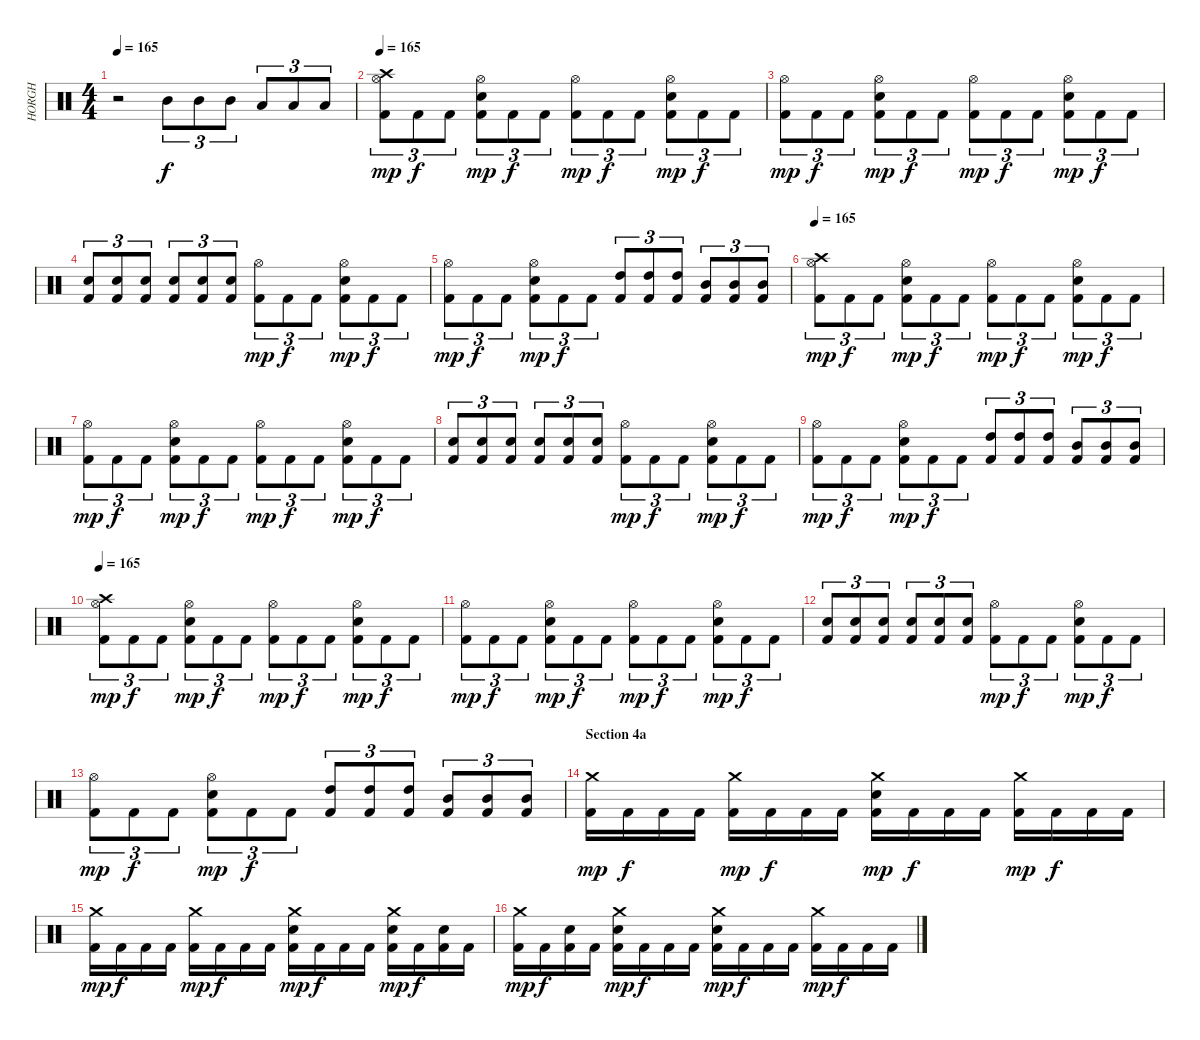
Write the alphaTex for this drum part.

\track ("HORGH" "HORGH") {instrument percussion}
\staff {score}
\articulation defaults
\ts (4 4)
\tempo 165
\clef neutral
\ks c
r.2{dy mp} "Mid Tom (hit)".8{tu (3 2) dy f} "Mid Tom (hit)".8{tu (3 2)} "Mid Tom (hit)".8{tu (3 2)} "Low Tom (hit)".8{tu (3 2)} "Low Tom (hit)".8{tu (3 2)} "Low Tom (hit)".8{tu (3 2)} |
\tempo 165
("Hi-Hat (open)" "Crash high (hit)" "Kick (hit) 2").8{tu (3 2) dy mp} "Kick (hit) 2".8{tu (3 2) dy f} "Kick (hit) 2".8{tu (3 2)} ("Hi-Hat (open)" "Electric Snare (hit)" "Kick (hit) 2").8{tu (3 2) dy mp} "Kick (hit) 2".8{tu (3 2) dy f} "Kick (hit) 2".8{tu (3 2)} ("Hi-Hat (open)" "Kick (hit) 2").8{tu (3 2) dy mp} "Kick (hit) 2".8{tu (3 2) dy f} "Kick (hit) 2".8{tu (3 2)} ("Hi-Hat (open)" "Electric Snare (hit)" "Kick (hit) 2").8{tu (3 2) dy mp} "Kick (hit) 2".8{tu (3 2) dy f} "Kick (hit) 2".8{tu (3 2)} |
("Hi-Hat (open)" "Kick (hit) 2").8{tu (3 2) dy mp} "Kick (hit) 2".8{tu (3 2) dy f} "Kick (hit) 2".8{tu (3 2)} ("Hi-Hat (open)" "Electric Snare (hit)" "Kick (hit) 2").8{tu (3 2) dy mp} "Kick (hit) 2".8{tu (3 2) dy f} "Kick (hit) 2".8{tu (3 2)} ("Hi-Hat (open)" "Kick (hit) 2").8{tu (3 2) dy mp} "Kick (hit) 2".8{tu (3 2) dy f} "Kick (hit) 2".8{tu (3 2)} ("Hi-Hat (open)" "Electric Snare (hit)" "Kick (hit) 2").8{tu (3 2) dy mp} "Kick (hit) 2".8{tu (3 2) dy f} "Kick (hit) 2".8{tu (3 2)} |
("Electric Snare (hit)" "Kick (hit) 2").8{tu (3 2)} ("Electric Snare (hit)" "Kick (hit) 2").8{tu (3 2)} ("Electric Snare (hit)" "Kick (hit) 2").8{tu (3 2)} ("Electric Snare (hit)" "Kick (hit) 2").8{tu (3 2)} ("Electric Snare (hit)" "Kick (hit) 2").8{tu (3 2)} ("Electric Snare (hit)" "Kick (hit) 2").8{tu (3 2)} ("Hi-Hat (open)" "Kick (hit) 2").8{tu (3 2) dy mp} "Kick (hit) 2".8{tu (3 2) dy f} "Kick (hit) 2".8{tu (3 2)} ("Hi-Hat (open)" "Electric Snare (hit)" "Kick (hit) 2").8{tu (3 2) dy mp} "Kick (hit) 2".8{tu (3 2) dy f} "Kick (hit) 2".8{tu (3 2)} |
("Hi-Hat (open)" "Kick (hit) 2").8{tu (3 2) dy mp} "Kick (hit) 2".8{tu (3 2) dy f} "Kick (hit) 2".8{tu (3 2)} ("Hi-Hat (open)" "Electric Snare (hit)" "Kick (hit) 2").8{tu (3 2) dy mp} "Kick (hit) 2".8{tu (3 2) dy f} "Kick (hit) 2".8{tu (3 2)} ("High Tom (hit)" "Kick (hit) 2").8{tu (3 2)} ("High Tom (hit)" "Kick (hit) 2").8{tu (3 2)} ("High Tom (hit)" "Kick (hit) 2").8{tu (3 2)} ("Mid Tom (hit)" "Kick (hit) 2").8{tu (3 2)} ("Mid Tom (hit)" "Kick (hit) 2").8{tu (3 2)} ("Mid Tom (hit)" "Kick (hit) 2").8{tu (3 2)} |
\tempo 165
("Hi-Hat (open)" "Crash high (hit)" "Kick (hit) 2").8{tu (3 2) dy mp} "Kick (hit) 2".8{tu (3 2) dy f} "Kick (hit) 2".8{tu (3 2)} ("Hi-Hat (open)" "Electric Snare (hit)" "Kick (hit) 2").8{tu (3 2) dy mp} "Kick (hit) 2".8{tu (3 2) dy f} "Kick (hit) 2".8{tu (3 2)} ("Hi-Hat (open)" "Kick (hit) 2").8{tu (3 2) dy mp} "Kick (hit) 2".8{tu (3 2) dy f} "Kick (hit) 2".8{tu (3 2)} ("Hi-Hat (open)" "Electric Snare (hit)" "Kick (hit) 2").8{tu (3 2) dy mp} "Kick (hit) 2".8{tu (3 2) dy f} "Kick (hit) 2".8{tu (3 2)} |
("Hi-Hat (open)" "Kick (hit) 2").8{tu (3 2) dy mp} "Kick (hit) 2".8{tu (3 2) dy f} "Kick (hit) 2".8{tu (3 2)} ("Hi-Hat (open)" "Electric Snare (hit)" "Kick (hit) 2").8{tu (3 2) dy mp} "Kick (hit) 2".8{tu (3 2) dy f} "Kick (hit) 2".8{tu (3 2)} ("Hi-Hat (open)" "Kick (hit) 2").8{tu (3 2) dy mp} "Kick (hit) 2".8{tu (3 2) dy f} "Kick (hit) 2".8{tu (3 2)} ("Hi-Hat (open)" "Electric Snare (hit)" "Kick (hit) 2").8{tu (3 2) dy mp} "Kick (hit) 2".8{tu (3 2) dy f} "Kick (hit) 2".8{tu (3 2)} |
("Electric Snare (hit)" "Kick (hit) 2").8{tu (3 2)} ("Electric Snare (hit)" "Kick (hit) 2").8{tu (3 2)} ("Electric Snare (hit)" "Kick (hit) 2").8{tu (3 2)} ("Electric Snare (hit)" "Kick (hit) 2").8{tu (3 2)} ("Electric Snare (hit)" "Kick (hit) 2").8{tu (3 2)} ("Electric Snare (hit)" "Kick (hit) 2").8{tu (3 2)} ("Hi-Hat (open)" "Kick (hit) 2").8{tu (3 2) dy mp} "Kick (hit) 2".8{tu (3 2) dy f} "Kick (hit) 2".8{tu (3 2)} ("Hi-Hat (open)" "Electric Snare (hit)" "Kick (hit) 2").8{tu (3 2) dy mp} "Kick (hit) 2".8{tu (3 2) dy f} "Kick (hit) 2".8{tu (3 2)} |
("Hi-Hat (open)" "Kick (hit) 2").8{tu (3 2) dy mp} "Kick (hit) 2".8{tu (3 2) dy f} "Kick (hit) 2".8{tu (3 2)} ("Hi-Hat (open)" "Electric Snare (hit)" "Kick (hit) 2").8{tu (3 2) dy mp} "Kick (hit) 2".8{tu (3 2) dy f} "Kick (hit) 2".8{tu (3 2)} ("High Tom (hit)" "Kick (hit) 2").8{tu (3 2)} ("High Tom (hit)" "Kick (hit) 2").8{tu (3 2)} ("High Tom (hit)" "Kick (hit) 2").8{tu (3 2)} ("Mid Tom (hit)" "Kick (hit) 2").8{tu (3 2)} ("Mid Tom (hit)" "Kick (hit) 2").8{tu (3 2)} ("Mid Tom (hit)" "Kick (hit) 2").8{tu (3 2)} |
\tempo 165
("Hi-Hat (open)" "Crash high (hit)" "Kick (hit) 2").8{tu (3 2) dy mp} "Kick (hit) 2".8{tu (3 2) dy f} "Kick (hit) 2".8{tu (3 2)} ("Hi-Hat (open)" "Electric Snare (hit)" "Kick (hit) 2").8{tu (3 2) dy mp} "Kick (hit) 2".8{tu (3 2) dy f} "Kick (hit) 2".8{tu (3 2)} ("Hi-Hat (open)" "Kick (hit) 2").8{tu (3 2) dy mp} "Kick (hit) 2".8{tu (3 2) dy f} "Kick (hit) 2".8{tu (3 2)} ("Hi-Hat (open)" "Electric Snare (hit)" "Kick (hit) 2").8{tu (3 2) dy mp} "Kick (hit) 2".8{tu (3 2) dy f} "Kick (hit) 2".8{tu (3 2)} |
("Hi-Hat (open)" "Kick (hit) 2").8{tu (3 2) dy mp} "Kick (hit) 2".8{tu (3 2) dy f} "Kick (hit) 2".8{tu (3 2)} ("Hi-Hat (open)" "Electric Snare (hit)" "Kick (hit) 2").8{tu (3 2) dy mp} "Kick (hit) 2".8{tu (3 2) dy f} "Kick (hit) 2".8{tu (3 2)} ("Hi-Hat (open)" "Kick (hit) 2").8{tu (3 2) dy mp} "Kick (hit) 2".8{tu (3 2) dy f} "Kick (hit) 2".8{tu (3 2)} ("Hi-Hat (open)" "Electric Snare (hit)" "Kick (hit) 2").8{tu (3 2) dy mp} "Kick (hit) 2".8{tu (3 2) dy f} "Kick (hit) 2".8{tu (3 2)} |
("Electric Snare (hit)" "Kick (hit) 2").8{tu (3 2)} ("Electric Snare (hit)" "Kick (hit) 2").8{tu (3 2)} ("Electric Snare (hit)" "Kick (hit) 2").8{tu (3 2)} ("Electric Snare (hit)" "Kick (hit) 2").8{tu (3 2)} ("Electric Snare (hit)" "Kick (hit) 2").8{tu (3 2)} ("Electric Snare (hit)" "Kick (hit) 2").8{tu (3 2)} ("Hi-Hat (open)" "Kick (hit) 2").8{tu (3 2) dy mp} "Kick (hit) 2".8{tu (3 2) dy f} "Kick (hit) 2".8{tu (3 2)} ("Hi-Hat (open)" "Electric Snare (hit)" "Kick (hit) 2").8{tu (3 2) dy mp} "Kick (hit) 2".8{tu (3 2) dy f} "Kick (hit) 2".8{tu (3 2)} |
("Hi-Hat (open)" "Kick (hit) 2").8{tu (3 2) dy mp} "Kick (hit) 2".8{tu (3 2) dy f} "Kick (hit) 2".8{tu (3 2)} ("Hi-Hat (open)" "Electric Snare (hit)" "Kick (hit) 2").8{tu (3 2) dy mp} "Kick (hit) 2".8{tu (3 2) dy f} "Kick (hit) 2".8{tu (3 2)} ("High Tom (hit)" "Kick (hit) 2").8{tu (3 2)} ("High Tom (hit)" "Kick (hit) 2").8{tu (3 2)} ("High Tom (hit)" "Kick (hit) 2").8{tu (3 2)} ("Mid Tom (hit)" "Kick (hit) 2").8{tu (3 2)} ("Mid Tom (hit)" "Kick (hit) 2").8{tu (3 2)} ("Mid Tom (hit)" "Kick (hit) 2").8{tu (3 2)} |
\section ("" "Section 4a")
("Crash medium (hit)" "Kick (hit) 2").16{dy mp} "Kick (hit) 2".16{dy f} "Kick (hit) 2".16 "Kick (hit) 2".16 ("Crash medium (hit)" "Kick (hit) 2").16{dy mp} "Kick (hit) 2".16{dy f} "Kick (hit) 2".16 "Kick (hit) 2".16 ("Crash medium (hit)" "Electric Snare (hit)" "Kick (hit) 2").16{dy mp} "Kick (hit) 2".16{dy f} "Kick (hit) 2".16 "Kick (hit) 2".16 ("Crash medium (hit)" "Kick (hit) 2").16{dy mp} "Kick (hit) 2".16{dy f} "Kick (hit) 2".16 "Kick (hit) 2".16 |
("Crash medium (hit)" "Kick (hit) 2").16{dy mp} "Kick (hit) 2".16{dy f} "Kick (hit) 2".16 "Kick (hit) 2".16 ("Crash medium (hit)" "Kick (hit) 2").16{dy mp} "Kick (hit) 2".16{dy f} "Kick (hit) 2".16 "Kick (hit) 2".16 ("Crash medium (hit)" "Electric Snare (hit)" "Kick (hit) 2").16{dy mp} "Kick (hit) 2".16{dy f} "Kick (hit) 2".16 "Kick (hit) 2".16 ("Crash medium (hit)" "Electric Snare (hit)" "Kick (hit) 2").16{dy mp} "Kick (hit) 2".16{dy f} ("Electric Snare (hit)" "Kick (hit) 2").16 "Kick (hit) 2".16 |
("Crash medium (hit)" "Kick (hit) 2").16{dy mp} "Kick (hit) 2".16{dy f} ("Electric Snare (hit)" "Kick (hit) 2").16 "Kick (hit) 2".16 ("Crash medium (hit)" "Electric Snare (hit)" "Kick (hit) 2").16{dy mp} "Kick (hit) 2".16{dy f} "Kick (hit) 2".16 "Kick (hit) 2".16 ("Crash medium (hit)" "Electric Snare (hit)" "Kick (hit) 2").16{dy mp} "Kick (hit) 2".16{dy f} "Kick (hit) 2".16 "Kick (hit) 2".16 ("Crash medium (hit)" "Kick (hit) 2").16{dy mp} "Kick (hit) 2".16{dy f} "Kick (hit) 2".16 "Kick (hit) 2".16
